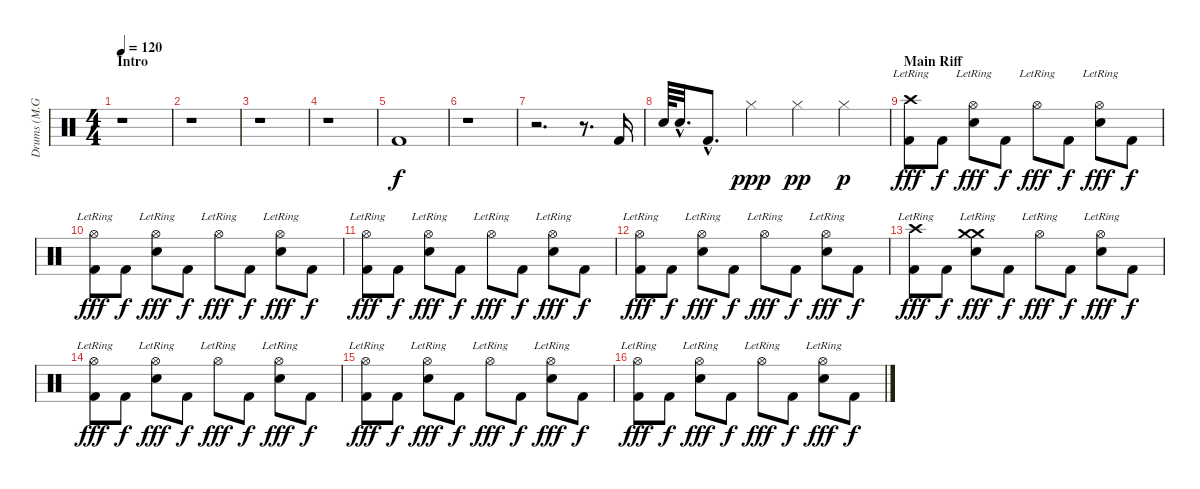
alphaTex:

\track ("Drums (M.Grosskopf)" "Drums (M.G") {instrument percussion}
\staff {score}
\articulation defaults
\ts (4 4)
\section ("" "Intro")
\tempo 120
\clef neutral
\ks c
r.1{dy f} |
r.1 |
r.1 |
r.1 |
"Kick (hit) 2".1 |
r.1 |
r.2{d} r.8{d} "Kick (hit) 2".16 |
"Electric Snare (hit)".64 "Electric Snare (hit)"{hac}.32{d} "Kick (hit) 2"{hac}.8{d} "Hi-Hat (closed)".4{dy ppp} "Hi-Hat (closed)".4{dy pp} "Hi-Hat (closed)".4{dy p} |
\section ("" "Main Riff")
("Crash high (hit)"{lr} "Kick (hit) 2").8{dy fff} "Kick (hit) 2".8{dy f} ("Hi-Hat (open)"{lr} "Electric Snare (hit)").8{dy fff} "Kick (hit) 2".8{dy f} "Hi-Hat (open)"{lr}.8{dy fff} "Kick (hit) 2".8{dy f} ("Hi-Hat (open)"{lr} "Electric Snare (hit)").8{dy fff} "Kick (hit) 2".8{dy f} |
("Hi-Hat (open)"{lr} "Kick (hit) 2").8{dy fff} "Kick (hit) 2".8{dy f} ("Hi-Hat (open)"{lr} "Electric Snare (hit)").8{dy fff} "Kick (hit) 2".8{dy f} "Hi-Hat (open)"{lr}.8{dy fff} "Kick (hit) 2".8{dy f} ("Hi-Hat (open)"{lr} "Electric Snare (hit)").8{dy fff} "Kick (hit) 2".8{dy f} |
("Hi-Hat (open)"{lr} "Kick (hit) 2").8{dy fff} "Kick (hit) 2".8{dy f} ("Hi-Hat (open)"{lr} "Electric Snare (hit)").8{dy fff} "Kick (hit) 2".8{dy f} "Hi-Hat (open)"{lr}.8{dy fff} "Kick (hit) 2".8{dy f} ("Hi-Hat (open)"{lr} "Electric Snare (hit)").8{dy fff} "Kick (hit) 2".8{dy f} |
("Hi-Hat (open)"{lr} "Kick (hit) 2").8{dy fff} "Kick (hit) 2".8{dy f} ("Hi-Hat (open)"{lr} "Electric Snare (hit)").8{dy fff} "Kick (hit) 2".8{dy f} "Hi-Hat (open)"{lr}.8{dy fff} "Kick (hit) 2".8{dy f} ("Hi-Hat (open)"{lr} "Electric Snare (hit)").8{dy fff} "Kick (hit) 2".8{dy f} |
("Crash high (hit)"{lr} "Kick (hit) 2").8{dy fff} "Kick (hit) 2".8{dy f} ("Crash medium (hit)"{lr} "Crash medium (hit)"{lr} "Electric Snare (hit)").8{dy fff} "Kick (hit) 2".8{dy f} "Hi-Hat (open)"{lr}.8{dy fff} "Kick (hit) 2".8{dy f} ("Hi-Hat (open)"{lr} "Electric Snare (hit)").8{dy fff} "Kick (hit) 2".8{dy f} |
("Hi-Hat (open)"{lr} "Kick (hit) 2").8{dy fff} "Kick (hit) 2".8{dy f} ("Hi-Hat (open)"{lr} "Electric Snare (hit)").8{dy fff} "Kick (hit) 2".8{dy f} "Hi-Hat (open)"{lr}.8{dy fff} "Kick (hit) 2".8{dy f} ("Hi-Hat (open)"{lr} "Electric Snare (hit)").8{dy fff} "Kick (hit) 2".8{dy f} |
("Hi-Hat (open)"{lr} "Kick (hit) 2").8{dy fff} "Kick (hit) 2".8{dy f} ("Hi-Hat (open)"{lr} "Electric Snare (hit)").8{dy fff} "Kick (hit) 2".8{dy f} "Hi-Hat (open)"{lr}.8{dy fff} "Kick (hit) 2".8{dy f} ("Hi-Hat (open)"{lr} "Electric Snare (hit)").8{dy fff} "Kick (hit) 2".8{dy f} |
("Hi-Hat (open)"{lr} "Kick (hit) 2").8{dy fff} "Kick (hit) 2".8{dy f} ("Hi-Hat (open)"{lr} "Electric Snare (hit)").8{dy fff} "Kick (hit) 2".8{dy f} "Hi-Hat (open)"{lr}.8{dy fff} "Kick (hit) 2".8{dy f} ("Hi-Hat (open)"{lr} "Electric Snare (hit)").8{dy fff} "Kick (hit) 2".8{dy f}
